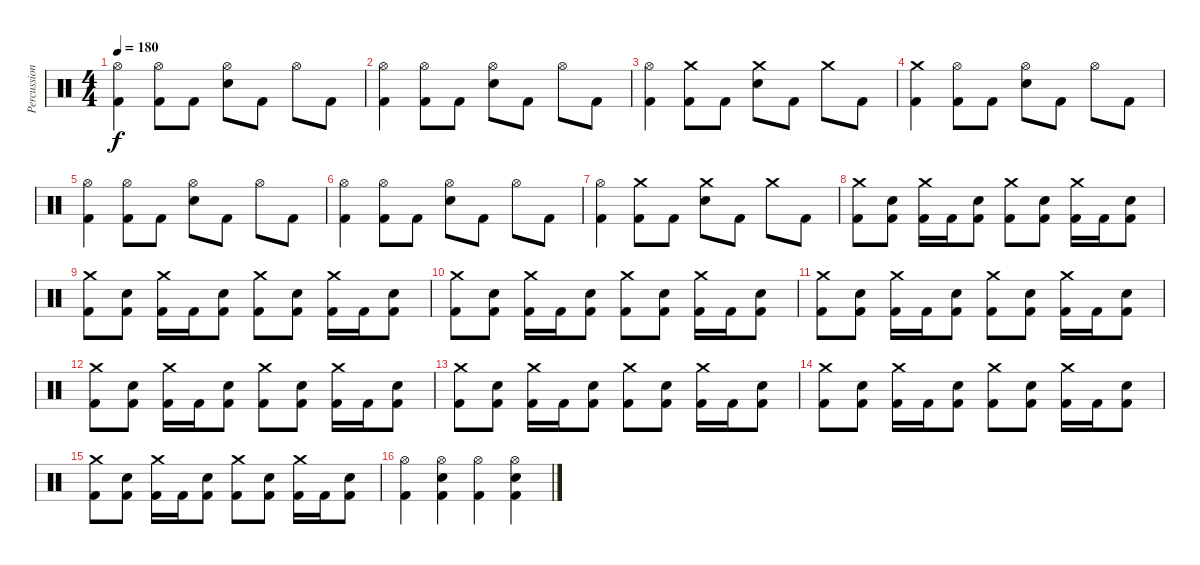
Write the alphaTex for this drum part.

\track ("Percussion" "Percussion") {instrument percussion}
\staff {score}
\articulation defaults
\ts (4 4)
\tempo 180
\clef neutral
\ks c
("Hi-Hat (open)" "Kick (hit) 2").4{dy f} ("Hi-Hat (open)" "Kick (hit) 2").8 "Kick (hit) 2".8 ("Hi-Hat (open)" "Electric Snare (hit)").8 "Kick (hit) 2".8 "Hi-Hat (open)".8 "Kick (hit) 2".8 |
("Hi-Hat (open)" "Kick (hit) 2").4 ("Hi-Hat (open)" "Kick (hit) 2").8 "Kick (hit) 2".8 ("Hi-Hat (open)" "Electric Snare (hit)").8 "Kick (hit) 2".8 "Hi-Hat (open)".8 "Kick (hit) 2".8 |
("Hi-Hat (open)" "Kick (hit) 2").4 ("Crash medium (hit)" "Kick (hit) 2").8 "Kick (hit) 2".8 ("Crash medium (hit)" "Electric Snare (hit)").8 "Kick (hit) 2".8 "Crash medium (hit)".8 "Kick (hit) 2".8 |
("Crash medium (hit)" "Kick (hit) 2").4 ("Hi-Hat (open)" "Kick (hit) 2").8 "Kick (hit) 2".8 ("Hi-Hat (open)" "Electric Snare (hit)").8 "Kick (hit) 2".8 "Hi-Hat (open)".8 "Kick (hit) 2".8 |
("Hi-Hat (open)" "Kick (hit) 2").4 ("Hi-Hat (open)" "Kick (hit) 2").8 "Kick (hit) 2".8 ("Hi-Hat (open)" "Electric Snare (hit)").8 "Kick (hit) 2".8 "Hi-Hat (open)".8 "Kick (hit) 2".8 |
("Hi-Hat (open)" "Kick (hit) 2").4 ("Hi-Hat (open)" "Kick (hit) 2").8 "Kick (hit) 2".8 ("Hi-Hat (open)" "Electric Snare (hit)").8 "Kick (hit) 2".8 "Hi-Hat (open)".8 "Kick (hit) 2".8 |
("Hi-Hat (open)" "Kick (hit) 2").4 ("Crash medium (hit)" "Kick (hit) 2").8 "Kick (hit) 2".8 ("Crash medium (hit)" "Electric Snare (hit)").8 "Kick (hit) 2".8 "Crash medium (hit)".8 "Kick (hit) 2".8 |
("Crash medium (hit)" "Kick (hit) 2").8 ("Electric Snare (hit)" "Kick (hit) 2").8 ("Crash medium (hit)" "Kick (hit) 2").16 "Kick (hit) 2".16 ("Electric Snare (hit)" "Kick (hit) 2").8 ("Crash medium (hit)" "Kick (hit) 2").8 ("Electric Snare (hit)" "Kick (hit) 2").8 ("Crash medium (hit)" "Kick (hit) 2").16 "Kick (hit) 2".16 ("Electric Snare (hit)" "Kick (hit) 2").8 |
("Crash medium (hit)" "Kick (hit) 2").8 ("Electric Snare (hit)" "Kick (hit) 2").8 ("Crash medium (hit)" "Kick (hit) 2").16 "Kick (hit) 2".16 ("Electric Snare (hit)" "Kick (hit) 2").8 ("Crash medium (hit)" "Kick (hit) 2").8 ("Electric Snare (hit)" "Kick (hit) 2").8 ("Crash medium (hit)" "Kick (hit) 2").16 "Kick (hit) 2".16 ("Electric Snare (hit)" "Kick (hit) 2").8 |
("Crash medium (hit)" "Kick (hit) 2").8 ("Electric Snare (hit)" "Kick (hit) 2").8 ("Crash medium (hit)" "Kick (hit) 2").16 "Kick (hit) 2".16 ("Electric Snare (hit)" "Kick (hit) 2").8 ("Crash medium (hit)" "Kick (hit) 2").8 ("Electric Snare (hit)" "Kick (hit) 2").8 ("Crash medium (hit)" "Kick (hit) 2").16 "Kick (hit) 2".16 ("Electric Snare (hit)" "Kick (hit) 2").8 |
("Crash medium (hit)" "Kick (hit) 2").8 ("Electric Snare (hit)" "Kick (hit) 2").8 ("Crash medium (hit)" "Kick (hit) 2").16 "Kick (hit) 2".16 ("Electric Snare (hit)" "Kick (hit) 2").8 ("Crash medium (hit)" "Kick (hit) 2").8 ("Electric Snare (hit)" "Kick (hit) 2").8 ("Crash medium (hit)" "Kick (hit) 2").16 "Kick (hit) 2".16 ("Electric Snare (hit)" "Kick (hit) 2").8 |
("Crash medium (hit)" "Kick (hit) 2").8 ("Electric Snare (hit)" "Kick (hit) 2").8 ("Crash medium (hit)" "Kick (hit) 2").16 "Kick (hit) 2".16 ("Electric Snare (hit)" "Kick (hit) 2").8 ("Crash medium (hit)" "Kick (hit) 2").8 ("Electric Snare (hit)" "Kick (hit) 2").8 ("Crash medium (hit)" "Kick (hit) 2").16 "Kick (hit) 2".16 ("Electric Snare (hit)" "Kick (hit) 2").8 |
("Crash medium (hit)" "Kick (hit) 2").8 ("Electric Snare (hit)" "Kick (hit) 2").8 ("Crash medium (hit)" "Kick (hit) 2").16 "Kick (hit) 2".16 ("Electric Snare (hit)" "Kick (hit) 2").8 ("Crash medium (hit)" "Kick (hit) 2").8 ("Electric Snare (hit)" "Kick (hit) 2").8 ("Crash medium (hit)" "Kick (hit) 2").16 "Kick (hit) 2".16 ("Electric Snare (hit)" "Kick (hit) 2").8 |
("Crash medium (hit)" "Kick (hit) 2").8 ("Electric Snare (hit)" "Kick (hit) 2").8 ("Crash medium (hit)" "Kick (hit) 2").16 "Kick (hit) 2".16 ("Electric Snare (hit)" "Kick (hit) 2").8 ("Crash medium (hit)" "Kick (hit) 2").8 ("Electric Snare (hit)" "Kick (hit) 2").8 ("Crash medium (hit)" "Kick (hit) 2").16 "Kick (hit) 2".16 ("Electric Snare (hit)" "Kick (hit) 2").8 |
("Crash medium (hit)" "Kick (hit) 2").8 ("Electric Snare (hit)" "Kick (hit) 2").8 ("Crash medium (hit)" "Kick (hit) 2").16 "Kick (hit) 2".16 ("Electric Snare (hit)" "Kick (hit) 2").8 ("Crash medium (hit)" "Kick (hit) 2").8 ("Electric Snare (hit)" "Kick (hit) 2").8 ("Crash medium (hit)" "Kick (hit) 2").16 "Kick (hit) 2".16 ("Electric Snare (hit)" "Kick (hit) 2").8 |
("Hi-Hat (open)" "Kick (hit) 2").4 ("Hi-Hat (open)" "Electric Snare (hit)" "Kick (hit) 2").4 ("Hi-Hat (open)" "Kick (hit) 2").4 ("Hi-Hat (open)" "Electric Snare (hit)" "Kick (hit) 2").4
